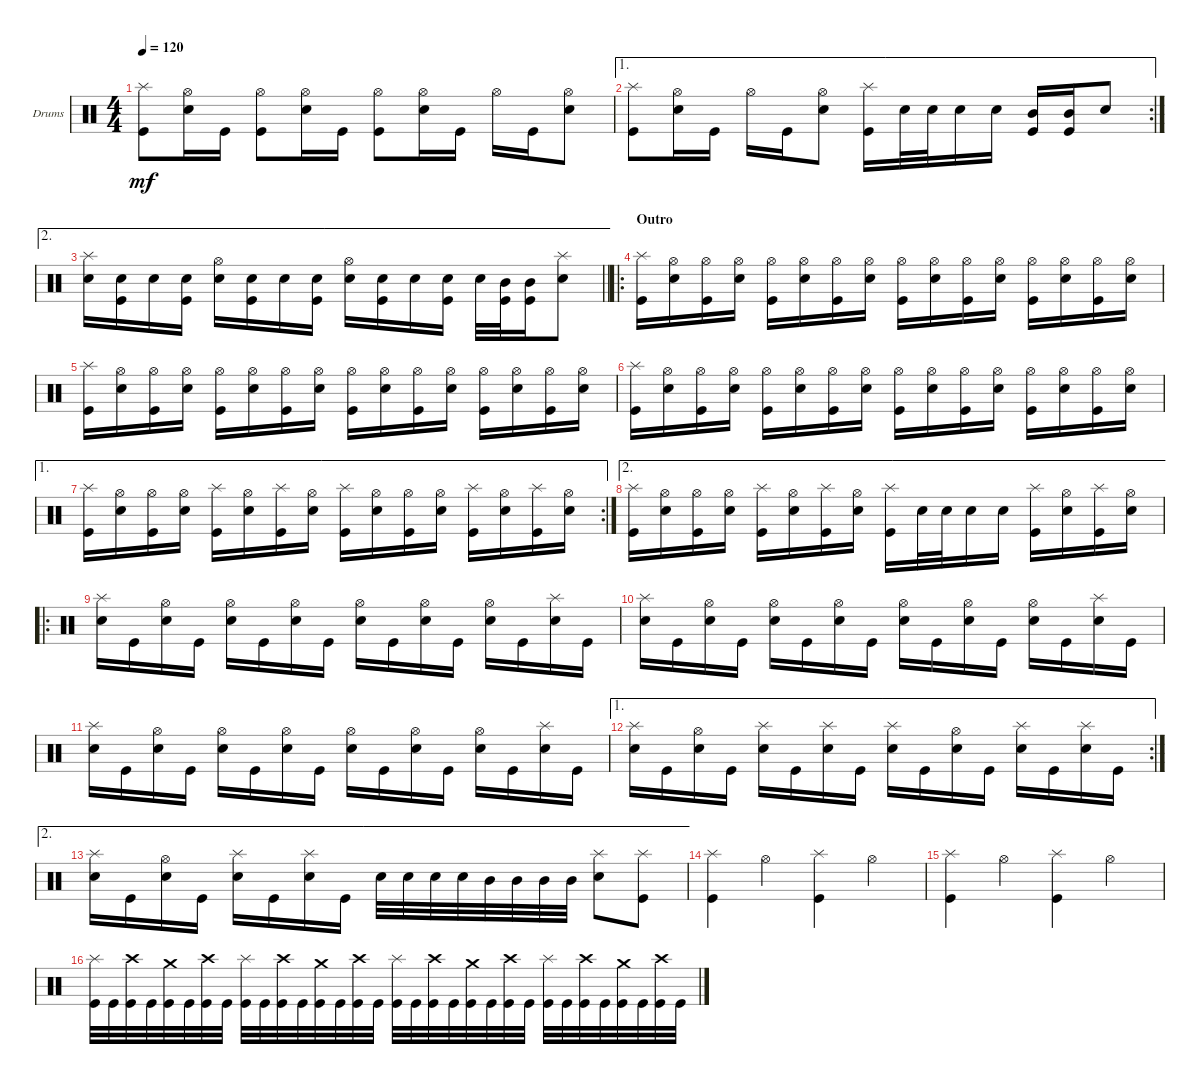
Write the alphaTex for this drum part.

\defaultSystemsLayout 4
\bracketExtendMode groupsimilarinstruments
\firstSystemTrackNameOrientation horizontal
\otherSystemsTrackNameOrientation horizontal
\track ("Drumkit" "Drums") {instrument percussion}
\staff {score}
\articulation defaults
\ts (4 4)
\tempo 120
\clef neutral
\ks c
("Kick (hit)" "Splash (hit)").8{dy mf} ("Snare (hit) 2" "Hi-Hat (open)").16 "Kick (hit)".16 ("Kick (hit)" "Hi-Hat (open)").8 ("Snare (hit) 2" "Hi-Hat (open)").16 "Kick (hit)".16 ("Kick (hit)" "Hi-Hat (open)").8 ("Snare (hit) 2" "Hi-Hat (open)").16 "Kick (hit)".16 "Hi-Hat (open)".16 "Kick (hit)".16 ("Snare (hit) 2" "Hi-Hat (open)").8 |
\ae 1
\rc 2
("Kick (hit)" "Splash (hit)").8 ("Snare (hit) 2" "Hi-Hat (open)").16 "Kick (hit)".16 "Hi-Hat (open)".16 "Kick (hit)".16 ("Snare (hit) 2" "Hi-Hat (open)").8 ("Kick (hit)" "Splash (hit)").16 "Snare (hit) 2".32 "Snare (hit) 2".32 "Snare (hit) 2".16 "Snare (hit) 2".16 ("Kick (hit)" "Mid Tom (hit)").16 ("Kick (hit)" "Mid Tom (hit)").16 "Snare (hit) 2".8 |
\ae 2
\barLineRight lightlight
("Snare (hit) 2" "Splash (hit)").16 ("Kick (hit)" "Snare (hit) 2").16 "Snare (hit) 2".16 ("Kick (hit)" "Snare (hit) 2").16 ("Snare (hit) 2" "Hi-Hat (open)").16 ("Kick (hit)" "Snare (hit) 2").16 "Snare (hit) 2".16 ("Kick (hit)" "Snare (hit) 2").16 ("Snare (hit) 2" "Hi-Hat (open)").16 ("Kick (hit)" "Snare (hit) 2").16 "Snare (hit) 2".16 ("Kick (hit)" "Snare (hit) 2").16 "Snare (hit) 2".32 ("Kick (hit)" "Mid Tom (hit)").32 ("Kick (hit)" "Mid Tom (hit)").16 ("Snare (hit) 2" "Splash (hit)").8 |
\ro
\section ("" "Outro")
("Kick (hit)" "Splash (hit)").16 ("Snare (hit) 2" "Hi-Hat (open)").16 ("Kick (hit)" "Hi-Hat (open)").16 ("Snare (hit) 2" "Hi-Hat (open)").16 ("Kick (hit)" "Hi-Hat (open)").16 ("Snare (hit) 2" "Hi-Hat (open)").16 ("Kick (hit)" "Hi-Hat (open)").16 ("Snare (hit) 2" "Hi-Hat (open)").16 ("Kick (hit)" "Hi-Hat (open)").16 ("Snare (hit) 2" "Hi-Hat (open)").16 ("Kick (hit)" "Hi-Hat (open)").16 ("Snare (hit) 2" "Hi-Hat (open)").16 ("Kick (hit)" "Hi-Hat (open)").16 ("Snare (hit) 2" "Hi-Hat (open)").16 ("Kick (hit)" "Hi-Hat (open)").16 ("Snare (hit) 2" "Hi-Hat (open)").16 |
("Kick (hit)" "Splash (hit)").16 ("Snare (hit) 2" "Hi-Hat (open)").16 ("Kick (hit)" "Hi-Hat (open)").16 ("Snare (hit) 2" "Hi-Hat (open)").16 ("Kick (hit)" "Hi-Hat (open)").16 ("Snare (hit) 2" "Hi-Hat (open)").16 ("Kick (hit)" "Hi-Hat (open)").16 ("Snare (hit) 2" "Hi-Hat (open)").16 ("Kick (hit)" "Hi-Hat (open)").16 ("Snare (hit) 2" "Hi-Hat (open)").16 ("Kick (hit)" "Hi-Hat (open)").16 ("Snare (hit) 2" "Hi-Hat (open)").16 ("Kick (hit)" "Hi-Hat (open)").16 ("Snare (hit) 2" "Hi-Hat (open)").16 ("Kick (hit)" "Hi-Hat (open)").16 ("Snare (hit) 2" "Hi-Hat (open)").16 |
("Kick (hit)" "Splash (hit)").16 ("Snare (hit) 2" "Hi-Hat (open)").16 ("Kick (hit)" "Hi-Hat (open)").16 ("Snare (hit) 2" "Hi-Hat (open)").16 ("Kick (hit)" "Hi-Hat (open)").16 ("Snare (hit) 2" "Hi-Hat (open)").16 ("Kick (hit)" "Hi-Hat (open)").16 ("Snare (hit) 2" "Hi-Hat (open)").16 ("Kick (hit)" "Hi-Hat (open)").16 ("Snare (hit) 2" "Hi-Hat (open)").16 ("Kick (hit)" "Hi-Hat (open)").16 ("Snare (hit) 2" "Hi-Hat (open)").16 ("Kick (hit)" "Hi-Hat (open)").16 ("Snare (hit) 2" "Hi-Hat (open)").16 ("Kick (hit)" "Hi-Hat (open)").16 ("Snare (hit) 2" "Hi-Hat (open)").16 |
\ae 1
\rc 2
("Kick (hit)" "Splash (hit)").16 ("Snare (hit) 2" "Hi-Hat (open)").16 ("Kick (hit)" "Hi-Hat (open)").16 ("Snare (hit) 2" "Hi-Hat (open)").16 ("Kick (hit)" "Splash (hit)").16 ("Snare (hit) 2" "Hi-Hat (open)").16 ("Kick (hit)" "Splash (hit)").16 ("Snare (hit) 2" "Hi-Hat (open)").16 ("Kick (hit)" "Splash (hit)").16 ("Snare (hit) 2" "Hi-Hat (open)").16 ("Kick (hit)" "Hi-Hat (open)").16 ("Snare (hit) 2" "Hi-Hat (open)").16 ("Kick (hit)" "Splash (hit)").16 ("Snare (hit) 2" "Hi-Hat (open)").16 ("Kick (hit)" "Splash (hit)").16 ("Snare (hit) 2" "Hi-Hat (open)").16 |
\ae 2
("Kick (hit)" "Splash (hit)").16 ("Snare (hit) 2" "Hi-Hat (open)").16 ("Kick (hit)" "Hi-Hat (open)").16 ("Snare (hit) 2" "Hi-Hat (open)").16 ("Kick (hit)" "Splash (hit)").16 ("Snare (hit) 2" "Hi-Hat (open)").16 ("Kick (hit)" "Splash (hit)").16 ("Snare (hit) 2" "Hi-Hat (open)").16 ("Kick (hit)" "Splash (hit)").16 "Snare (hit) 2".32 "Snare (hit) 2".32 "Snare (hit) 2".16 "Snare (hit) 2".16 ("Kick (hit)" "Splash (hit)").16 ("Snare (hit) 2" "Hi-Hat (open)").16 ("Kick (hit)" "Splash (hit)").16 ("Snare (hit) 2" "Hi-Hat (open)").16 |
\ro
("Snare (hit) 2" "Splash (hit)").16 "Kick (hit)".16 ("Snare (hit) 2" "Hi-Hat (open)").16 "Kick (hit)".16 ("Snare (hit) 2" "Hi-Hat (open)").16 "Kick (hit)".16 ("Snare (hit) 2" "Hi-Hat (open)").16 "Kick (hit)".16 ("Snare (hit) 2" "Hi-Hat (open)").16 "Kick (hit)".16 ("Snare (hit) 2" "Hi-Hat (open)").16 "Kick (hit)".16 ("Snare (hit) 2" "Hi-Hat (open)").16 "Kick (hit)".16 ("Snare (hit) 2" "Splash (hit)").16 "Kick (hit)".16 |
("Snare (hit) 2" "Splash (hit)").16 "Kick (hit)".16 ("Snare (hit) 2" "Hi-Hat (open)").16 "Kick (hit)".16 ("Snare (hit) 2" "Hi-Hat (open)").16 "Kick (hit)".16 ("Snare (hit) 2" "Hi-Hat (open)").16 "Kick (hit)".16 ("Snare (hit) 2" "Hi-Hat (open)").16 "Kick (hit)".16 ("Snare (hit) 2" "Hi-Hat (open)").16 "Kick (hit)".16 ("Snare (hit) 2" "Hi-Hat (open)").16 "Kick (hit)".16 ("Snare (hit) 2" "Splash (hit)").16 "Kick (hit)".16 |
("Snare (hit) 2" "Splash (hit)").16 "Kick (hit)".16 ("Snare (hit) 2" "Hi-Hat (open)").16 "Kick (hit)".16 ("Snare (hit) 2" "Hi-Hat (open)").16 "Kick (hit)".16 ("Snare (hit) 2" "Hi-Hat (open)").16 "Kick (hit)".16 ("Snare (hit) 2" "Hi-Hat (open)").16 "Kick (hit)".16 ("Snare (hit) 2" "Hi-Hat (open)").16 "Kick (hit)".16 ("Snare (hit) 2" "Hi-Hat (open)").16 "Kick (hit)".16 ("Snare (hit) 2" "Splash (hit)").16 "Kick (hit)".16 |
\ae 1
\rc 2
("Snare (hit) 2" "Splash (hit)").16 "Kick (hit)".16 ("Snare (hit) 2" "Hi-Hat (open)").16 "Kick (hit)".16 ("Snare (hit) 2" "Splash (hit)").16 "Kick (hit)".16 ("Snare (hit) 2" "Splash (hit)").16 "Kick (hit)".16 ("Snare (hit) 2" "Splash (hit)").16 "Kick (hit)".16 ("Snare (hit) 2" "Hi-Hat (open)").16 "Kick (hit)".16 ("Snare (hit) 2" "Splash (hit)").16 "Kick (hit)".16 ("Snare (hit) 2" "Splash (hit)").16 "Kick (hit)".16 |
\ae 2
("Snare (hit) 2" "Splash (hit)").16 "Kick (hit)".16 ("Snare (hit) 2" "Hi-Hat (open)").16 "Kick (hit)".16 ("Snare (hit) 2" "Splash (hit)").16 "Kick (hit)".16 ("Snare (hit) 2" "Splash (hit)").16 "Kick (hit)".16 "Snare (hit) 2".32 "Snare (hit) 2".32 "Snare (hit) 2".32 "Snare (hit) 2".32 "Mid Tom (hit)".32 "Mid Tom (hit)".32 "Mid Tom (hit)".32 "Mid Tom (hit)".32 ("Snare (hit) 2" "Splash (hit)").8 ("Kick (hit)" "Splash (hit)").8 |
("Kick (hit)" "Splash (hit)").4 "Hi-Hat (open)".4 ("Splash (hit)" "Kick (hit)").4 "Hi-Hat (open)".4 |
("Kick (hit)" "Splash (hit)").4 "Hi-Hat (open)".4 ("Splash (hit)" "Kick (hit)").4 "Hi-Hat (open)".4 |
("Kick (hit)" "Splash (hit)").32 "Kick (hit)".32 ("Kick (hit)" "Crash high (hit)").32 "Kick (hit)".32 ("Kick (hit)" "Crash medium (hit)").32 "Kick (hit)".32 ("Kick (hit)" "Crash high (hit)").32 "Kick (hit)".32 ("Kick (hit)" "Splash (hit)").32 "Kick (hit)".32 ("Kick (hit)" "Crash high (hit)").32 "Kick (hit)".32 ("Kick (hit)" "Crash medium (hit)").32 "Kick (hit)".32 ("Kick (hit)" "Crash high (hit)").32 "Kick (hit)".32 ("Kick (hit)" "Splash (hit)").32 "Kick (hit)".32 ("Kick (hit)" "Crash high (hit)").32 "Kick (hit)".32 ("Kick (hit)" "Crash medium (hit)").32 "Kick (hit)".32 ("Kick (hit)" "Crash high (hit)").32 "Kick (hit)".32 ("Kick (hit)" "Splash (hit)").32 "Kick (hit)".32 ("Kick (hit)" "Crash high (hit)").32 "Kick (hit)".32 ("Kick (hit)" "Crash medium (hit)").32 "Kick (hit)".32 ("Kick (hit)" "Crash high (hit)").32 "Kick (hit)".32
